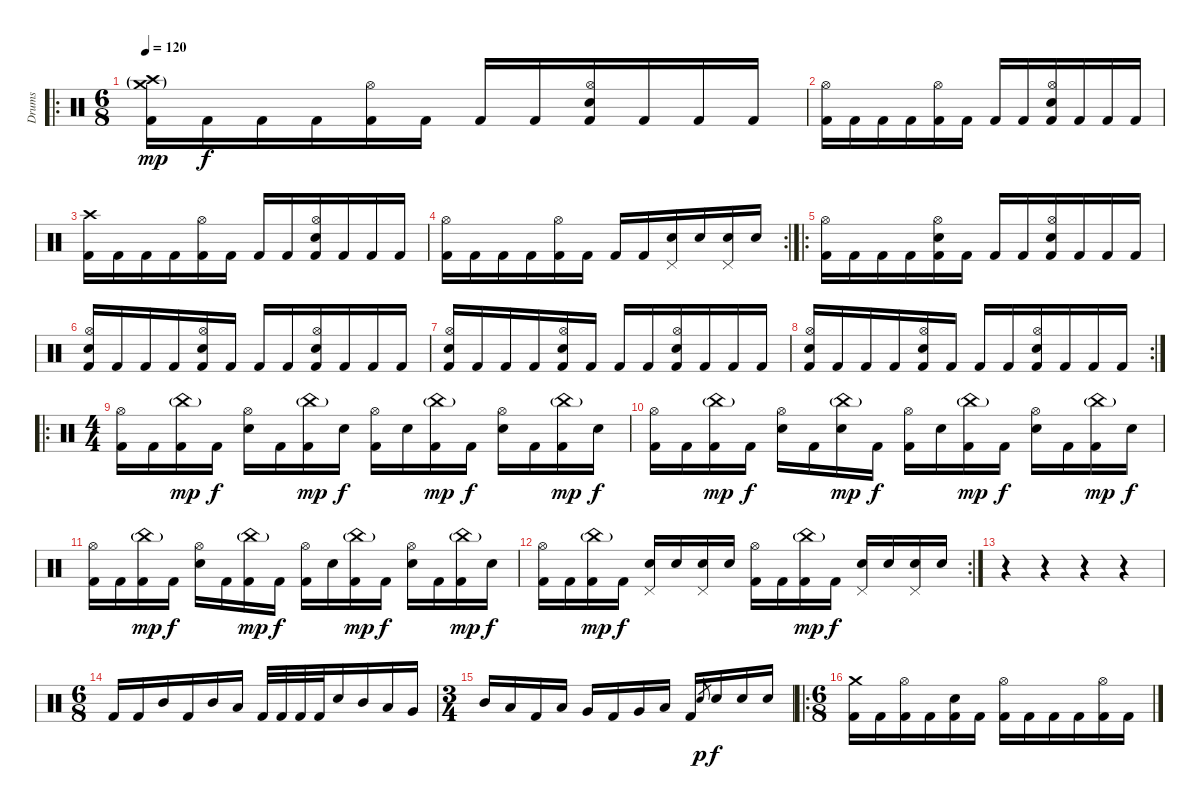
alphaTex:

\track ("Drums" "Drums") {instrument percussion}
\staff {score}
\articulation defaults
\ro
\ts (6 8)
\tempo 120
\clef neutral
\ks c
("Crash medium (hit)"{g} "Crash high (hit)"{g} "Kick (hit) 2").16{dy mp} "Kick (hit) 2".16{dy f} "Kick (hit) 2".16 "Kick (hit) 2".16 ("Hi-Hat (open)" "Kick (hit) 2").16 "Kick (hit) 2".16 "Kick (hit) 2".16 "Kick (hit) 2".16 ("Hi-Hat (open)" "Electric Snare (hit)" "Kick (hit) 2").16 "Kick (hit) 2".16 "Kick (hit) 2".16 "Kick (hit) 2".16 |
("Hi-Hat (open)" "Kick (hit) 2").16 "Kick (hit) 2".16 "Kick (hit) 2".16 "Kick (hit) 2".16 ("Hi-Hat (open)" "Kick (hit) 2").16 "Kick (hit) 2".16 "Kick (hit) 2".16 "Kick (hit) 2".16 ("Hi-Hat (open)" "Electric Snare (hit)" "Kick (hit) 2").16 "Kick (hit) 2".16 "Kick (hit) 2".16 "Kick (hit) 2".16 |
("Crash high (hit)" "Kick (hit) 2").16 "Kick (hit) 2".16 "Kick (hit) 2".16 "Kick (hit) 2".16 ("Hi-Hat (open)" "Kick (hit) 2").16 "Kick (hit) 2".16 "Kick (hit) 2".16 "Kick (hit) 2".16 ("Hi-Hat (open)" "Electric Snare (hit)" "Kick (hit) 2").16 "Kick (hit) 2".16 "Kick (hit) 2".16 "Kick (hit) 2".16 |
\rc 2
("Hi-Hat (open)" "Kick (hit) 2").16 "Kick (hit) 2".16 "Kick (hit) 2".16 "Kick (hit) 2".16 ("Hi-Hat (open)" "Kick (hit) 2").16 "Kick (hit) 2".16 "Kick (hit) 2".16 "Kick (hit) 2".16 ("Pedal Hi-Hat (hit)" "Electric Snare (hit)").16 "Electric Snare (hit)".16 ("Pedal Hi-Hat (hit)" "Electric Snare (hit)").16 "Electric Snare (hit)".16 |
\ro
("Hi-Hat (open)" "Kick (hit) 2").16 "Kick (hit) 2".16 "Kick (hit) 2".16 "Kick (hit) 2".16 ("Hi-Hat (open)" "Electric Snare (hit)" "Kick (hit) 2").16 "Kick (hit) 2".16 "Kick (hit) 2".16 "Kick (hit) 2".16 ("Hi-Hat (open)" "Electric Snare (hit)" "Kick (hit) 2").16 "Kick (hit) 2".16 "Kick (hit) 2".16 "Kick (hit) 2".16 |
("Hi-Hat (open)" "Electric Snare (hit)" "Kick (hit) 2").16 "Kick (hit) 2".16 "Kick (hit) 2".16 "Kick (hit) 2".16 ("Hi-Hat (open)" "Electric Snare (hit)" "Kick (hit) 2").16 "Kick (hit) 2".16 "Kick (hit) 2".16 "Kick (hit) 2".16 ("Hi-Hat (open)" "Electric Snare (hit)" "Kick (hit) 2").16 "Kick (hit) 2".16 "Kick (hit) 2".16 "Kick (hit) 2".16 |
("Hi-Hat (open)" "Electric Snare (hit)" "Kick (hit) 2").16 "Kick (hit) 2".16 "Kick (hit) 2".16 "Kick (hit) 2".16 ("Hi-Hat (open)" "Electric Snare (hit)" "Kick (hit) 2").16 "Kick (hit) 2".16 "Kick (hit) 2".16 "Kick (hit) 2".16 ("Hi-Hat (open)" "Electric Snare (hit)" "Kick (hit) 2").16 "Kick (hit) 2".16 "Kick (hit) 2".16 "Kick (hit) 2".16 |
\rc 2
("Hi-Hat (open)" "Electric Snare (hit)" "Kick (hit) 2").16 "Kick (hit) 2".16 "Kick (hit) 2".16 "Kick (hit) 2".16 ("Hi-Hat (open)" "Electric Snare (hit)" "Kick (hit) 2").16 "Kick (hit) 2".16 "Kick (hit) 2".16 "Kick (hit) 2".16 ("Hi-Hat (open)" "Electric Snare (hit)" "Kick (hit) 2").16 "Kick (hit) 2".16 "Kick (hit) 2".16 "Kick (hit) 2".16 |
\ro
\ts (4 4)
("Hi-Hat (open)" "Kick (hit) 2").16 "Kick (hit) 2".16 ("China (hit)"{g} "Kick (hit) 2").16{dy mp} "Kick (hit) 2".16{dy f} ("Hi-Hat (open)" "Electric Snare (hit)").16 "Kick (hit) 2".16 ("China (hit)"{g} "Kick (hit) 2").16{dy mp} "Electric Snare (hit)".16{dy f} ("Hi-Hat (open)" "Kick (hit) 2").16 "Electric Snare (hit)".16 ("China (hit)"{g} "Kick (hit) 2").16{dy mp} "Kick (hit) 2".16{dy f} ("Hi-Hat (open)" "Electric Snare (hit)").16 "Kick (hit) 2".16 ("China (hit)"{g} "Kick (hit) 2").16{dy mp} "Electric Snare (hit)".16{dy f} |
("Hi-Hat (open)" "Kick (hit) 2").16 "Kick (hit) 2".16 ("China (hit)"{g} "Kick (hit) 2").16{dy mp} "Kick (hit) 2".16{dy f} ("Hi-Hat (open)" "Electric Snare (hit)").16 "Kick (hit) 2".16 ("China (hit)"{g} "Electric Snare (hit)").16{dy mp} "Kick (hit) 2".16{dy f} ("Hi-Hat (open)" "Kick (hit) 2").16 "Electric Snare (hit)".16 ("China (hit)"{g} "Kick (hit) 2").16{dy mp} "Kick (hit) 2".16{dy f} ("Hi-Hat (open)" "Electric Snare (hit)").16 "Kick (hit) 2".16 ("China (hit)"{g} "Kick (hit) 2").16{dy mp} "Electric Snare (hit)".16{dy f} |
("Hi-Hat (open)" "Kick (hit) 2").16 "Kick (hit) 2".16 ("China (hit)"{g} "Kick (hit) 2").16{dy mp} "Kick (hit) 2".16{dy f} ("Hi-Hat (open)" "Electric Snare (hit)").16 "Kick (hit) 2".16 ("China (hit)"{g} "Kick (hit) 2").16{dy mp} "Kick (hit) 2".16{dy f} ("Hi-Hat (open)" "Kick (hit) 2").16 "Electric Snare (hit)".16 ("China (hit)"{g} "Kick (hit) 2").16{dy mp} "Kick (hit) 2".16{dy f} ("Hi-Hat (open)" "Electric Snare (hit)").16 "Kick (hit) 2".16 ("China (hit)"{g} "Kick (hit) 2").16{dy mp} "Electric Snare (hit)".16{dy f} |
\rc 2
("Hi-Hat (open)" "Kick (hit) 2").16 "Kick (hit) 2".16 ("China (hit)"{g} "Kick (hit) 2").16{dy mp} "Kick (hit) 2".16{dy f} ("Pedal Hi-Hat (hit)" "Electric Snare (hit)").16 "Electric Snare (hit)".16 ("Pedal Hi-Hat (hit)" "Electric Snare (hit)").16 "Electric Snare (hit)".16 ("Hi-Hat (open)" "Kick (hit) 2").16 "Kick (hit) 2".16 ("China (hit)"{g} "Kick (hit) 2").16{dy mp} "Kick (hit) 2".16{dy f} ("Pedal Hi-Hat (hit)" "Electric Snare (hit)").16 "Electric Snare (hit)".16 ("Pedal Hi-Hat (hit)" "Electric Snare (hit)").16 "Electric Snare (hit)".16 |
r.4 r.4 r.4 r.4 |
\ts (6 8)
"Kick (hit) 2".16 "Kick (hit) 2".16 "Mid Tom (hit)".16 "Kick (hit) 2".16 "Mid Tom (hit)".16 "Low Tom (hit)".16 "Kick (hit) 2".32 "Kick (hit) 2".32 "Kick (hit) 2".32 "Kick (hit) 2".32 "Electric Snare (hit)".16 "Mid Tom (hit)".16 "Low Tom (hit)".16 "Very Low Tom (hit)".16 |
\ts (3 4)
"Mid Tom (hit)".16 "Low Tom (hit)".16 "Kick (hit) 2".16 "Low Tom (hit)".16 "Very Low Tom (hit)".16 "Kick (hit) 2".16 "Very Low Tom (hit)".16 "Low Floor Tom (hit)".16 "Kick (hit) 2".16 "Electric Snare (hit)".8{gr dy p} "Electric Snare (hit)".16{dy f} "Electric Snare (hit)".16 "Electric Snare (hit)".16 |
\ro
\ts (6 8)
("Crash medium (hit)" "Kick (hit) 2").16 "Kick (hit) 2".16 ("Hi-Hat (open)" "Kick (hit) 2").16 "Kick (hit) 2".16 ("Electric Snare (hit)" "Kick (hit) 2").16 "Kick (hit) 2".16 ("Hi-Hat (open)" "Kick (hit) 2").16 "Kick (hit) 2".16 "Kick (hit) 2".16 "Kick (hit) 2".16 ("Hi-Hat (open)" "Kick (hit) 2").16 "Kick (hit) 2".16
